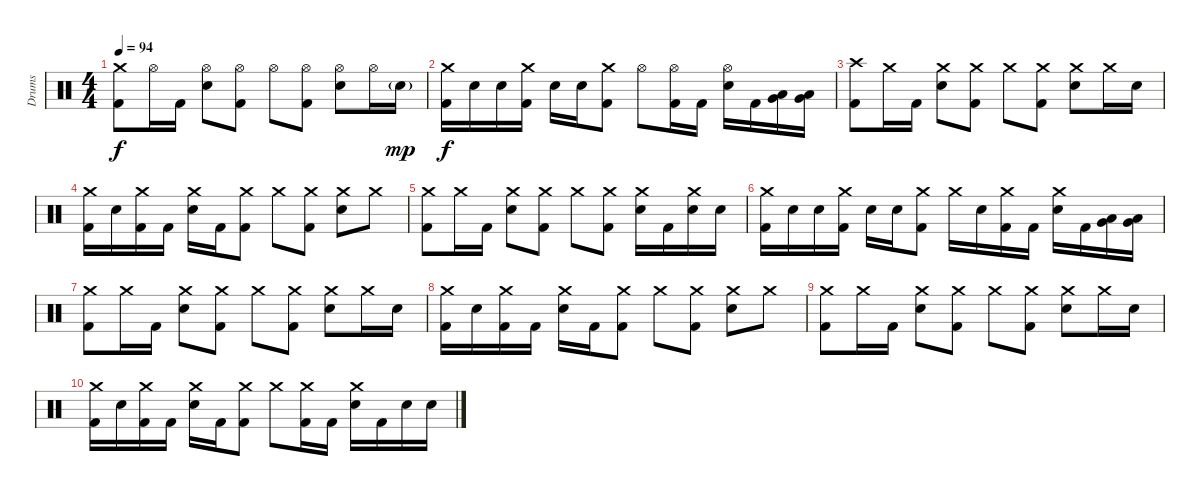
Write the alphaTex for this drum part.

\track ("Drums" "Drums") {instrument percussion}
\staff {score}
\articulation defaults
\ts (4 4)
\tempo 94
\clef neutral
\ks c
("Crash medium (hit)" "Kick (hit) 2").8{dy f} "Hi-Hat (open)".16 "Kick (hit) 2".16 ("Hi-Hat (open)" "Electric Snare (hit)").8 ("Hi-Hat (open)" "Kick (hit) 2").8 "Hi-Hat (open)".8 ("Hi-Hat (open)" "Kick (hit) 2").8 ("Hi-Hat (open)" "Electric Snare (hit)").8 "Hi-Hat (open)".16 "Electric Snare (hit)"{g}.16{dy mp} |
("Crash medium (hit)" "Kick (hit) 2").16{dy f} "Electric Snare (hit)".16 "Electric Snare (hit)".16 ("Crash medium (hit)" "Kick (hit) 2").16 "Electric Snare (hit)".16 "Electric Snare (hit)".16 ("Crash medium (hit)" "Kick (hit) 2").8 "Hi-Hat (open)".8 ("Hi-Hat (open)" "Kick (hit) 2").16 "Kick (hit) 2".16 ("Hi-Hat (open)" "Electric Snare (hit)").16 "Kick (hit) 2".16 ("Low Tom (hit)" "Very Low Tom (hit)").16 ("Low Tom (hit)" "Very Low Tom (hit)").16 |
("Crash high (hit)" "Kick (hit) 2").8 "Crash medium (hit)".16 "Kick (hit) 2".16 ("Crash medium (hit)" "Electric Snare (hit)").8 ("Crash medium (hit)" "Kick (hit) 2").8 "Crash medium (hit)".8 ("Crash medium (hit)" "Kick (hit) 2").8 ("Crash medium (hit)" "Electric Snare (hit)").8 "Crash medium (hit)".16 "Electric Snare (hit)".16 |
("Crash medium (hit)" "Kick (hit) 2").16 "Electric Snare (hit)".16 ("Crash medium (hit)" "Kick (hit) 2").16 "Kick (hit) 2".16 ("Crash medium (hit)" "Electric Snare (hit)").16 "Kick (hit) 2".16 ("Crash medium (hit)" "Kick (hit) 2").8 "Crash medium (hit)".8 ("Crash medium (hit)" "Kick (hit) 2").8 ("Crash medium (hit)" "Electric Snare (hit)").8 "Crash medium (hit)".8 |
("Crash medium (hit)" "Kick (hit) 2").8 "Crash medium (hit)".16 "Kick (hit) 2".16 ("Crash medium (hit)" "Electric Snare (hit)").8 ("Crash medium (hit)" "Kick (hit) 2").8 "Crash medium (hit)".8 ("Crash medium (hit)" "Kick (hit) 2").8 ("Crash medium (hit)" "Electric Snare (hit)").16 "Kick (hit) 2".16 ("Crash medium (hit)" "Electric Snare (hit)").16 "Electric Snare (hit)".16 |
("Crash medium (hit)" "Kick (hit) 2").16 "Electric Snare (hit)".16 "Electric Snare (hit)".16 ("Crash medium (hit)" "Kick (hit) 2").16 "Electric Snare (hit)".16 "Electric Snare (hit)".16 ("Crash medium (hit)" "Kick (hit) 2").8 "Crash medium (hit)".16 "Electric Snare (hit)".16 ("Crash medium (hit)" "Kick (hit) 2").16 "Kick (hit) 2".16 ("Crash medium (hit)" "Electric Snare (hit)").16 "Kick (hit) 2".16 ("Low Tom (hit)" "Very Low Tom (hit)").16 ("Low Tom (hit)" "Very Low Tom (hit)").16 |
("Crash medium (hit)" "Kick (hit) 2").8 "Crash medium (hit)".16 "Kick (hit) 2".16 ("Crash medium (hit)" "Electric Snare (hit)").8 ("Crash medium (hit)" "Kick (hit) 2").8 "Crash medium (hit)".8 ("Crash medium (hit)" "Kick (hit) 2").8 ("Crash medium (hit)" "Electric Snare (hit)").8 "Crash medium (hit)".16 "Electric Snare (hit)".16 |
("Crash medium (hit)" "Kick (hit) 2").16 "Electric Snare (hit)".16 ("Crash medium (hit)" "Kick (hit) 2").16 "Kick (hit) 2".16 ("Crash medium (hit)" "Electric Snare (hit)").16 "Kick (hit) 2".16 ("Crash medium (hit)" "Kick (hit) 2").8 "Crash medium (hit)".8 ("Crash medium (hit)" "Kick (hit) 2").8 ("Crash medium (hit)" "Electric Snare (hit)").8 "Crash medium (hit)".8 |
("Crash medium (hit)" "Kick (hit) 2").8 "Crash medium (hit)".16 "Kick (hit) 2".16 ("Crash medium (hit)" "Electric Snare (hit)").8 ("Crash medium (hit)" "Kick (hit) 2").8 "Crash medium (hit)".8 ("Crash medium (hit)" "Kick (hit) 2").8 ("Crash medium (hit)" "Electric Snare (hit)").8 "Crash medium (hit)".16 "Electric Snare (hit)".16 |
("Crash medium (hit)" "Kick (hit) 2").16 "Electric Snare (hit)".16 ("Crash medium (hit)" "Kick (hit) 2").16 "Kick (hit) 2".16 ("Crash medium (hit)" "Electric Snare (hit)").16 "Kick (hit) 2".16 ("Crash medium (hit)" "Kick (hit) 2").8 "Crash medium (hit)".8 ("Crash medium (hit)" "Kick (hit) 2").16 "Kick (hit) 2".16 ("Crash medium (hit)" "Electric Snare (hit)").16 "Kick (hit) 2".16 "Electric Snare (hit)".16 "Electric Snare (hit)".16
